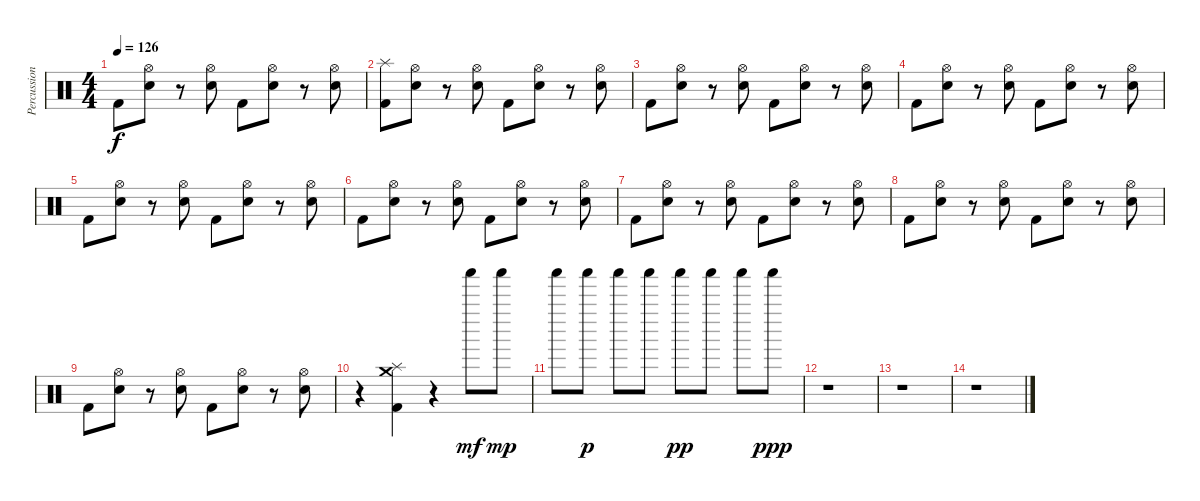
\track ("Percussions" "Percussion") {instrument percussion}
\staff {score}
\articulation defaults
\ts (4 4)
\tempo 126
\clef neutral
\ks c "Kick (hit) 2".8{dy f}
("Snare (hit) 2" "Hi-Hat (open)").8 r.8 ("Snare (hit) 2" "Hi-Hat (open)").8 "Kick (hit) 2".8 ("Snare (hit) 2" "Hi-Hat (open)").8 r.8 ("Snare (hit) 2" "Hi-Hat (open)").8 |
("Kick (hit) 2" "Splash (hit)").8 ("Snare (hit) 2" "Hi-Hat (open)").8 r.8 ("Snare (hit) 2" "Hi-Hat (open)").8 "Kick (hit) 2".8 ("Snare (hit) 2" "Hi-Hat (open)").8 r.8 ("Snare (hit) 2" "Hi-Hat (open)").8 |
"Kick (hit) 2".8 ("Snare (hit) 2" "Hi-Hat (open)").8 r.8 ("Snare (hit) 2" "Hi-Hat (open)").8 "Kick (hit) 2".8 ("Snare (hit) 2" "Hi-Hat (open)").8 r.8 ("Snare (hit) 2" "Hi-Hat (open)").8 |
"Kick (hit) 2".8 ("Snare (hit) 2" "Hi-Hat (open)").8 r.8 ("Snare (hit) 2" "Hi-Hat (open)").8 "Kick (hit) 2".8 ("Snare (hit) 2" "Hi-Hat (open)").8 r.8 ("Snare (hit) 2" "Hi-Hat (open)").8 |
"Kick (hit) 2".8 ("Snare (hit) 2" "Hi-Hat (open)").8 r.8 ("Snare (hit) 2" "Hi-Hat (open)").8 "Kick (hit) 2".8 ("Snare (hit) 2" "Hi-Hat (open)").8 r.8 ("Snare (hit) 2" "Hi-Hat (open)").8 |
"Kick (hit) 2".8 ("Snare (hit) 2" "Hi-Hat (open)").8 r.8 ("Snare (hit) 2" "Hi-Hat (open)").8 "Kick (hit) 2".8 ("Snare (hit) 2" "Hi-Hat (open)").8 r.8 ("Snare (hit) 2" "Hi-Hat (open)").8 |
"Kick (hit) 2".8 ("Snare (hit) 2" "Hi-Hat (open)").8 r.8 ("Snare (hit) 2" "Hi-Hat (open)").8 "Kick (hit) 2".8 ("Snare (hit) 2" "Hi-Hat (open)").8 r.8 ("Snare (hit) 2" "Hi-Hat (open)").8 |
"Kick (hit) 2".8 ("Snare (hit) 2" "Hi-Hat (open)").8 r.8 ("Snare (hit) 2" "Hi-Hat (open)").8 "Kick (hit) 2".8 ("Snare (hit) 2" "Hi-Hat (open)").8 r.8 ("Snare (hit) 2" "Hi-Hat (open)").8 |
"Kick (hit) 2".8 ("Snare (hit) 2" "Hi-Hat (open)").8 r.8 ("Snare (hit) 2" "Hi-Hat (open)").8 "Kick (hit) 2".8 ("Snare (hit) 2" "Hi-Hat (open)").8 r.8 ("Snare (hit) 2" "Hi-Hat (open)").8 |
r.4 ("Kick (hit) 2" "Splash (hit)" "Crash medium (hit)").4 r.4 "Shaker (hit)"{tr (82 16)}.8{dy mf} "Shaker (hit)"{tr (82 32)}.8{dy mp} |
"Shaker (hit)"{tr (82 32)}.8 "Shaker (hit)"{tr (82 32)}.8{dy p} "Shaker (hit)"{tr (82 32)}.8 "Shaker (hit)"{tr (82 32)}.8 "Shaker (hit)"{tr (82 16)}.8{dy pp} "Shaker (hit)"{tr (82 16)}.8 "Shaker (hit)"{tr (82 16)}.8 "Shaker (hit)".8{dy ppp} |
r.1 |
r.1 |
r.1
